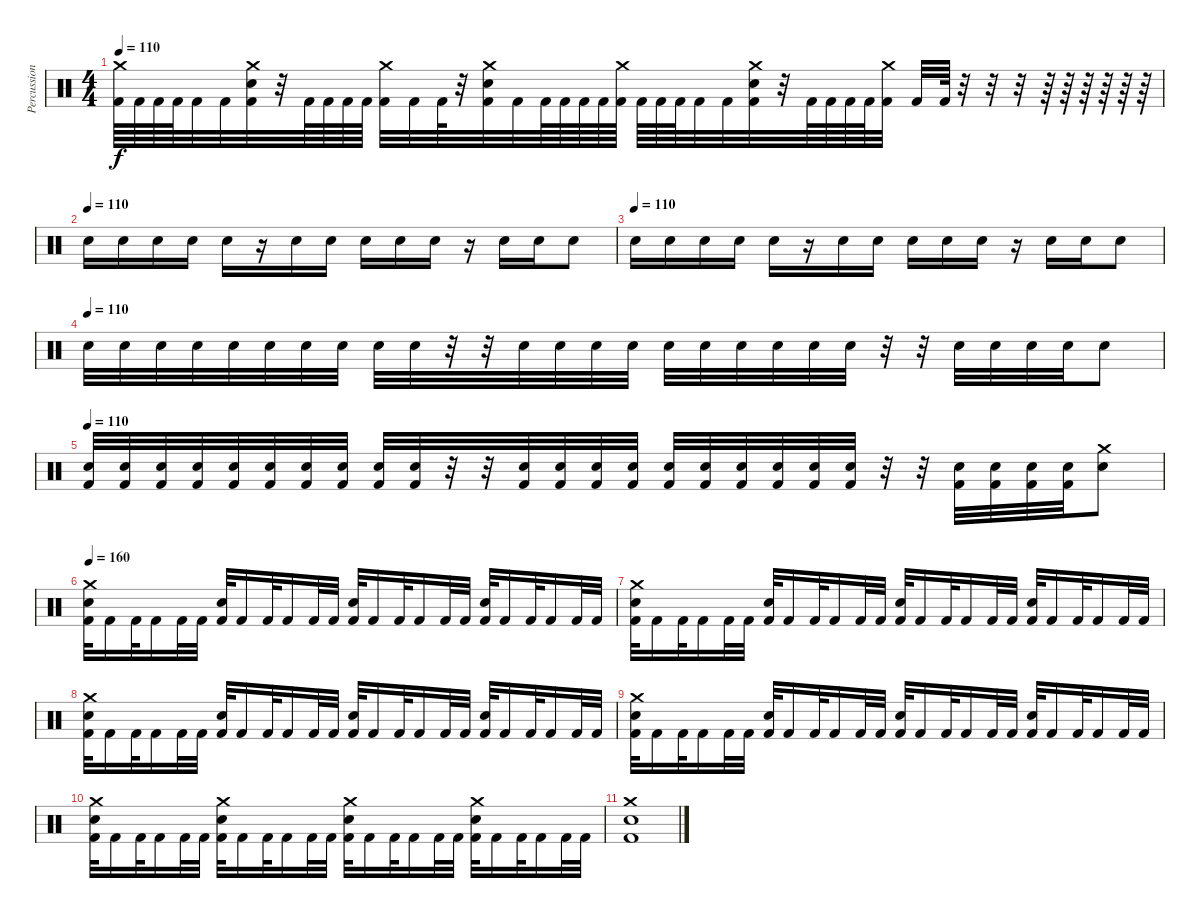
\track ("Percussion" "Percussion") {instrument percussion}
\staff {score}
\articulation defaults
\ts (4 4)
\tempo 110
\clef neutral
\ks c
("Crash medium (hit)" "Kick (hit) 2").64{dy f} "Kick (hit) 2".64 "Kick (hit) 2".64 "Kick (hit) 2".64 "Kick (hit) 2".32 "Kick (hit) 2".32 ("Crash medium (hit)" "Electric Snare (hit)" "Kick (hit) 2").32 r.32 "Kick (hit) 2".64 "Kick (hit) 2".64 "Kick (hit) 2".64 "Kick (hit) 2".64 ("Crash medium (hit)" "Kick (hit) 2").32 "Kick (hit) 2".32 "Kick (hit) 2".64 r.32 ("Crash medium (hit)" "Electric Snare (hit)" "Kick (hit) 2").32 "Kick (hit) 2".32 "Kick (hit) 2".64 "Kick (hit) 2".64 "Kick (hit) 2".64 "Kick (hit) 2".64 ("Crash medium (hit)" "Kick (hit) 2").64 "Kick (hit) 2".64 "Kick (hit) 2".64 "Kick (hit) 2".64 "Kick (hit) 2".32 "Kick (hit) 2".32 ("Crash medium (hit)" "Electric Snare (hit)" "Kick (hit) 2").32 r.32 "Kick (hit) 2".64 "Kick (hit) 2".64 "Kick (hit) 2".64 "Kick (hit) 2".64 ("Crash medium (hit)" "Kick (hit) 2").32 "Kick (hit) 2".32 "Kick (hit) 2".64 r.32 r.32 r.32 r.64 r.64 r.64 r.64 r.64 r.64 |
\tempo (110)
"Electric Snare (hit)".16 "Electric Snare (hit)".16 "Electric Snare (hit)".16 "Electric Snare (hit)".16 "Electric Snare (hit)".16 r.16 "Electric Snare (hit)".16 "Electric Snare (hit)".16 "Electric Snare (hit)".16 "Electric Snare (hit)".16 "Electric Snare (hit)".16 r.16 "Electric Snare (hit)".16 "Electric Snare (hit)".16 "Electric Snare (hit)".8 |
\tempo (110)
"Electric Snare (hit)".16 "Electric Snare (hit)".16 "Electric Snare (hit)".16 "Electric Snare (hit)".16 "Electric Snare (hit)".16 r.16 "Electric Snare (hit)".16 "Electric Snare (hit)".16 "Electric Snare (hit)".16 "Electric Snare (hit)".16 "Electric Snare (hit)".16 r.16 "Electric Snare (hit)".16 "Electric Snare (hit)".16 "Electric Snare (hit)".8 |
\tempo (110)
"Electric Snare (hit)".32 "Electric Snare (hit)".32 "Electric Snare (hit)".32 "Electric Snare (hit)".32 "Electric Snare (hit)".32 "Electric Snare (hit)".32 "Electric Snare (hit)".32 "Electric Snare (hit)".32 "Electric Snare (hit)".32 "Electric Snare (hit)".32 r.32 r.32 "Electric Snare (hit)".32 "Electric Snare (hit)".32 "Electric Snare (hit)".32 "Electric Snare (hit)".32 "Electric Snare (hit)".32 "Electric Snare (hit)".32 "Electric Snare (hit)".32 "Electric Snare (hit)".32 "Electric Snare (hit)".32 "Electric Snare (hit)".32 r.32 r.32 "Electric Snare (hit)".32 "Electric Snare (hit)".32 "Electric Snare (hit)".32 "Electric Snare (hit)".32 "Electric Snare (hit)".8 |
\tempo 110
("Kick (hit) 2" "Electric Snare (hit)").32 ("Kick (hit) 2" "Electric Snare (hit)").32 ("Kick (hit) 2" "Electric Snare (hit)").32 ("Kick (hit) 2" "Electric Snare (hit)").32 ("Kick (hit) 2" "Electric Snare (hit)").32 ("Kick (hit) 2" "Electric Snare (hit)").32 ("Kick (hit) 2" "Electric Snare (hit)").32 ("Kick (hit) 2" "Electric Snare (hit)").32 ("Kick (hit) 2" "Electric Snare (hit)").32 ("Kick (hit) 2" "Electric Snare (hit)").32 r.32 r.32 ("Kick (hit) 2" "Electric Snare (hit)").32 ("Kick (hit) 2" "Electric Snare (hit)").32 ("Kick (hit) 2" "Electric Snare (hit)").32 ("Kick (hit) 2" "Electric Snare (hit)").32 ("Kick (hit) 2" "Electric Snare (hit)").32 ("Kick (hit) 2" "Electric Snare (hit)").32 ("Kick (hit) 2" "Electric Snare (hit)").32 ("Kick (hit) 2" "Electric Snare (hit)").32 ("Kick (hit) 2" "Electric Snare (hit)").32 ("Kick (hit) 2" "Electric Snare (hit)").32 r.32 r.32 ("Kick (hit) 2" "Electric Snare (hit)").32 ("Kick (hit) 2" "Electric Snare (hit)").32 ("Kick (hit) 2" "Electric Snare (hit)").32 ("Kick (hit) 2" "Electric Snare (hit)").32 ("Crash medium (hit)" "Electric Snare (hit)").8 |
\tempo 160
("Crash medium (hit)" "Electric Snare (hit)" "Kick (hit) 2").32 "Kick (hit) 2".16 "Kick (hit) 2".32 "Kick (hit) 2".16 "Kick (hit) 2".32 "Kick (hit) 2".32 ("Electric Snare (hit)" "Kick (hit) 2").32 "Kick (hit) 2".16 "Kick (hit) 2".32 "Kick (hit) 2".16 "Kick (hit) 2".32 "Kick (hit) 2".32 ("Electric Snare (hit)" "Kick (hit) 2").32 "Kick (hit) 2".16 "Kick (hit) 2".32 "Kick (hit) 2".16 "Kick (hit) 2".32 "Kick (hit) 2".32 ("Electric Snare (hit)" "Kick (hit) 2").32 "Kick (hit) 2".16 "Kick (hit) 2".32 "Kick (hit) 2".16 "Kick (hit) 2".32 "Kick (hit) 2".32 |
("Crash medium (hit)" "Electric Snare (hit)" "Kick (hit) 2").32 "Kick (hit) 2".16 "Kick (hit) 2".32 "Kick (hit) 2".16 "Kick (hit) 2".32 "Kick (hit) 2".32 ("Electric Snare (hit)" "Kick (hit) 2").32 "Kick (hit) 2".16 "Kick (hit) 2".32 "Kick (hit) 2".16 "Kick (hit) 2".32 "Kick (hit) 2".32 ("Electric Snare (hit)" "Kick (hit) 2").32 "Kick (hit) 2".16 "Kick (hit) 2".32 "Kick (hit) 2".16 "Kick (hit) 2".32 "Kick (hit) 2".32 ("Electric Snare (hit)" "Kick (hit) 2").32 "Kick (hit) 2".16 "Kick (hit) 2".32 "Kick (hit) 2".16 "Kick (hit) 2".32 "Kick (hit) 2".32 |
("Crash medium (hit)" "Electric Snare (hit)" "Kick (hit) 2").32 "Kick (hit) 2".16 "Kick (hit) 2".32 "Kick (hit) 2".16 "Kick (hit) 2".32 "Kick (hit) 2".32 ("Electric Snare (hit)" "Kick (hit) 2").32 "Kick (hit) 2".16 "Kick (hit) 2".32 "Kick (hit) 2".16 "Kick (hit) 2".32 "Kick (hit) 2".32 ("Electric Snare (hit)" "Kick (hit) 2").32 "Kick (hit) 2".16 "Kick (hit) 2".32 "Kick (hit) 2".16 "Kick (hit) 2".32 "Kick (hit) 2".32 ("Electric Snare (hit)" "Kick (hit) 2").32 "Kick (hit) 2".16 "Kick (hit) 2".32 "Kick (hit) 2".16 "Kick (hit) 2".32 "Kick (hit) 2".32 |
("Crash medium (hit)" "Electric Snare (hit)" "Kick (hit) 2").32 "Kick (hit) 2".16 "Kick (hit) 2".32 "Kick (hit) 2".16 "Kick (hit) 2".32 "Kick (hit) 2".32 ("Electric Snare (hit)" "Kick (hit) 2").32 "Kick (hit) 2".16 "Kick (hit) 2".32 "Kick (hit) 2".16 "Kick (hit) 2".32 "Kick (hit) 2".32 ("Electric Snare (hit)" "Kick (hit) 2").32 "Kick (hit) 2".16 "Kick (hit) 2".32 "Kick (hit) 2".16 "Kick (hit) 2".32 "Kick (hit) 2".32 ("Electric Snare (hit)" "Kick (hit) 2").32 "Kick (hit) 2".16 "Kick (hit) 2".32 "Kick (hit) 2".16 "Kick (hit) 2".32 "Kick (hit) 2".32 |
("Crash medium (hit)" "Electric Snare (hit)" "Kick (hit) 2").32 "Kick (hit) 2".16 "Kick (hit) 2".32 "Kick (hit) 2".16 "Kick (hit) 2".32 "Kick (hit) 2".32 ("Crash medium (hit)" "Electric Snare (hit)" "Kick (hit) 2").32 "Kick (hit) 2".16 "Kick (hit) 2".32 "Kick (hit) 2".16 "Kick (hit) 2".32 "Kick (hit) 2".32 ("Crash medium (hit)" "Electric Snare (hit)" "Kick (hit) 2").32 "Kick (hit) 2".16 "Kick (hit) 2".32 "Kick (hit) 2".16 "Kick (hit) 2".32 "Kick (hit) 2".32 ("Crash medium (hit)" "Electric Snare (hit)" "Kick (hit) 2").32 "Kick (hit) 2".16 "Kick (hit) 2".32 "Kick (hit) 2".16 "Kick (hit) 2".32 "Kick (hit) 2".32 |
("Crash medium (hit)" "Electric Snare (hit)" "Kick (hit) 2").1
